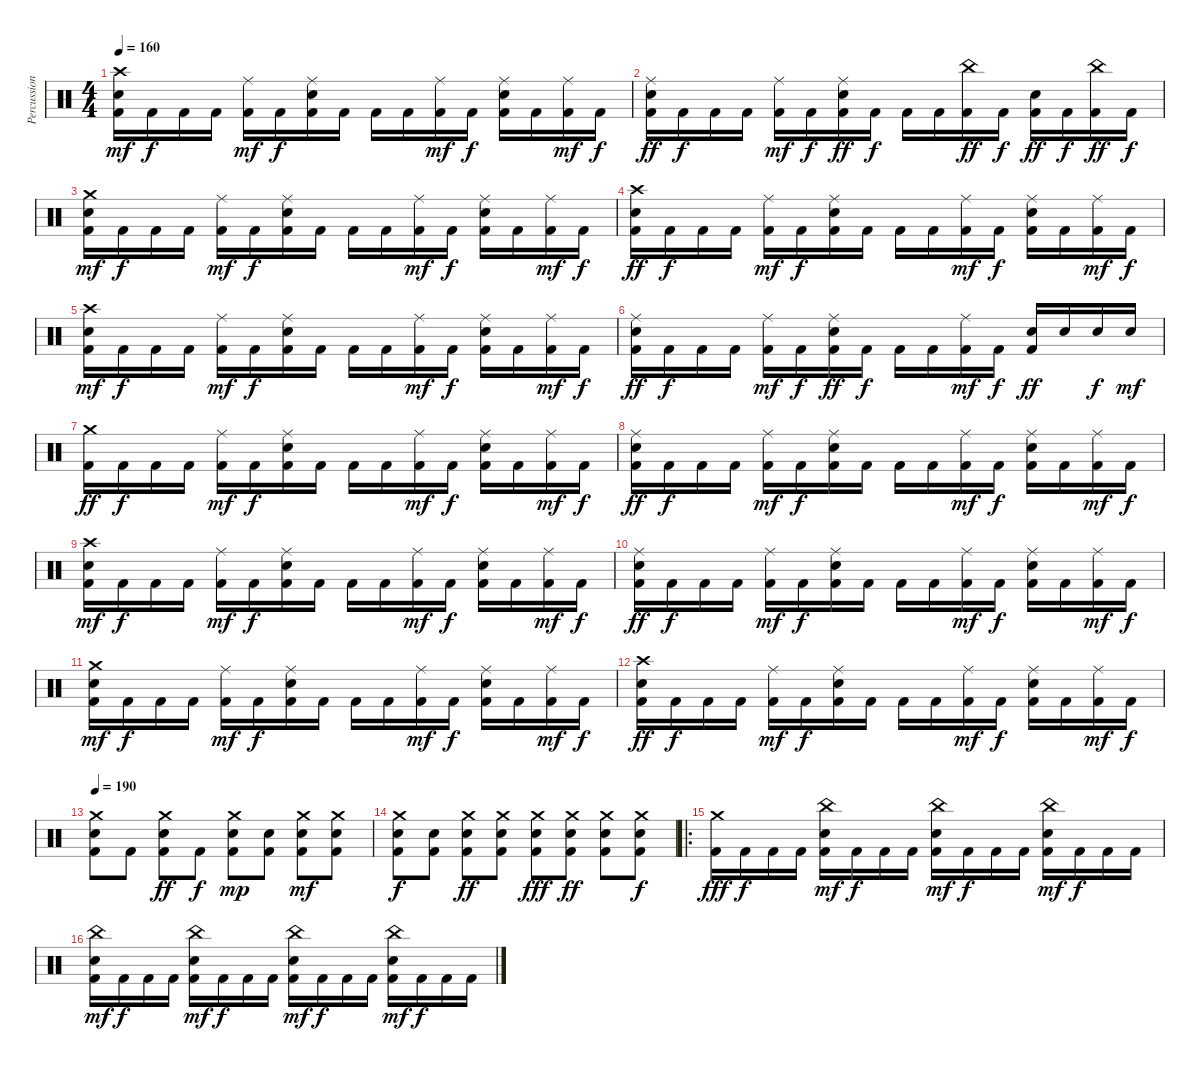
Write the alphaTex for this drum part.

\track ("Percussions" "Percussion") {instrument percussion}
\staff {score}
\articulation defaults
\ts (4 4)
\tempo 160
\clef neutral
\ks c
("Crash high (hit)" "Electric Snare (hit)" "Kick (hit) 2").16{dy mf} "Kick (hit) 2".16{dy f} "Kick (hit) 2".16 "Kick (hit) 2".16 ("Ride (middle)" "Kick (hit) 2").16{dy mf} "Kick (hit) 2".16{dy f} ("Ride (middle)" "Electric Snare (hit)" "Kick (hit) 2").16 "Kick (hit) 2".16 "Kick (hit) 2".16 "Kick (hit) 2".16 ("Ride (middle)" "Kick (hit) 2").16{dy mf} "Kick (hit) 2".16{dy f} ("Ride (middle)" "Electric Snare (hit)" "Kick (hit) 2").16 "Kick (hit) 2".16 ("Ride (middle)" "Kick (hit) 2").16{dy mf} "Kick (hit) 2".16{dy f} |
("Ride (middle)" "Electric Snare (hit)" "Kick (hit) 2").16{dy ff} "Kick (hit) 2".16{dy f} "Kick (hit) 2".16 "Kick (hit) 2".16 ("Ride (middle)" "Kick (hit) 2").16{dy mf} "Kick (hit) 2".16{dy f} ("Ride (middle)" "Electric Snare (hit)" "Kick (hit) 2").16{dy ff} "Kick (hit) 2".16{dy f} "Kick (hit) 2".16 "Kick (hit) 2".16 ("China (hit)" "Kick (hit) 2").16{dy ff} "Kick (hit) 2".16{dy f} ("Electric Snare (hit)" "Kick (hit) 2").16{dy ff} "Kick (hit) 2".16{dy f} ("China (hit)" "Kick (hit) 2").16{dy ff} "Kick (hit) 2".16{dy f} |
("Crash medium (hit)" "Electric Snare (hit)" "Kick (hit) 2").16{dy mf} "Kick (hit) 2".16{dy f} "Kick (hit) 2".16 "Kick (hit) 2".16 ("Ride (middle)" "Kick (hit) 2").16{dy mf} "Kick (hit) 2".16{dy f} ("Ride (middle)" "Electric Snare (hit)" "Kick (hit) 2").16 "Kick (hit) 2".16 "Kick (hit) 2".16 "Kick (hit) 2".16 ("Ride (middle)" "Kick (hit) 2").16{dy mf} "Kick (hit) 2".16{dy f} ("Ride (middle)" "Electric Snare (hit)" "Kick (hit) 2").16 "Kick (hit) 2".16 ("Ride (middle)" "Kick (hit) 2").16{dy mf} "Kick (hit) 2".16{dy f} |
("Crash high (hit)" "Electric Snare (hit)" "Kick (hit) 2").16{dy ff} "Kick (hit) 2".16{dy f} "Kick (hit) 2".16 "Kick (hit) 2".16 ("Ride (middle)" "Kick (hit) 2").16{dy mf} "Kick (hit) 2".16{dy f} ("Ride (middle)" "Electric Snare (hit)" "Kick (hit) 2").16 "Kick (hit) 2".16 "Kick (hit) 2".16 "Kick (hit) 2".16 ("Ride (middle)" "Kick (hit) 2").16{dy mf} "Kick (hit) 2".16{dy f} ("Ride (middle)" "Electric Snare (hit)" "Kick (hit) 2").16 "Kick (hit) 2".16 ("Ride (middle)" "Kick (hit) 2").16{dy mf} "Kick (hit) 2".16{dy f} |
("Crash high (hit)" "Electric Snare (hit)" "Kick (hit) 2").16{dy mf} "Kick (hit) 2".16{dy f} "Kick (hit) 2".16 "Kick (hit) 2".16 ("Ride (middle)" "Kick (hit) 2").16{dy mf} "Kick (hit) 2".16{dy f} ("Ride (middle)" "Electric Snare (hit)" "Kick (hit) 2").16 "Kick (hit) 2".16 "Kick (hit) 2".16 "Kick (hit) 2".16 ("Ride (middle)" "Kick (hit) 2").16{dy mf} "Kick (hit) 2".16{dy f} ("Ride (middle)" "Electric Snare (hit)" "Kick (hit) 2").16 "Kick (hit) 2".16 ("Ride (middle)" "Kick (hit) 2").16{dy mf} "Kick (hit) 2".16{dy f} |
("Ride (middle)" "Electric Snare (hit)" "Kick (hit) 2").16{dy ff} "Kick (hit) 2".16{dy f} "Kick (hit) 2".16 "Kick (hit) 2".16 ("Ride (middle)" "Kick (hit) 2").16{dy mf} "Kick (hit) 2".16{dy f} ("Ride (middle)" "Electric Snare (hit)" "Kick (hit) 2").16{dy ff} "Kick (hit) 2".16{dy f} "Kick (hit) 2".16 "Kick (hit) 2".16 ("Ride (middle)" "Kick (hit) 2").16{dy mf} "Kick (hit) 2".16{dy f} ("Electric Snare (hit)" "Kick (hit) 2").16{dy ff} "Electric Snare (hit)".16 "Electric Snare (hit)".16{dy f} "Electric Snare (hit)".16{dy mf} |
("Crash medium (hit)" "Kick (hit) 2").16{dy ff} "Kick (hit) 2".16{dy f} "Kick (hit) 2".16 "Kick (hit) 2".16 ("Ride (middle)" "Kick (hit) 2").16{dy mf} "Kick (hit) 2".16{dy f} ("Ride (middle)" "Electric Snare (hit)" "Kick (hit) 2").16 "Kick (hit) 2".16 "Kick (hit) 2".16 "Kick (hit) 2".16 ("Ride (middle)" "Kick (hit) 2").16{dy mf} "Kick (hit) 2".16{dy f} ("Ride (middle)" "Electric Snare (hit)" "Kick (hit) 2").16 "Kick (hit) 2".16 ("Ride (middle)" "Kick (hit) 2").16{dy mf} "Kick (hit) 2".16{dy f} |
("Ride (middle)" "Electric Snare (hit)" "Kick (hit) 2").16{dy ff} "Kick (hit) 2".16{dy f} "Kick (hit) 2".16 "Kick (hit) 2".16 ("Ride (middle)" "Kick (hit) 2").16{dy mf} "Kick (hit) 2".16{dy f} ("Ride (middle)" "Electric Snare (hit)" "Kick (hit) 2").16 "Kick (hit) 2".16 "Kick (hit) 2".16 "Kick (hit) 2".16 ("Ride (middle)" "Kick (hit) 2").16{dy mf} "Kick (hit) 2".16{dy f} ("Ride (middle)" "Electric Snare (hit)" "Kick (hit) 2").16 "Kick (hit) 2".16 ("Ride (middle)" "Kick (hit) 2").16{dy mf} "Kick (hit) 2".16{dy f} |
("Crash high (hit)" "Electric Snare (hit)" "Kick (hit) 2").16{dy mf} "Kick (hit) 2".16{dy f} "Kick (hit) 2".16 "Kick (hit) 2".16 ("Ride (middle)" "Kick (hit) 2").16{dy mf} "Kick (hit) 2".16{dy f} ("Ride (middle)" "Electric Snare (hit)" "Kick (hit) 2").16 "Kick (hit) 2".16 "Kick (hit) 2".16 "Kick (hit) 2".16 ("Ride (middle)" "Kick (hit) 2").16{dy mf} "Kick (hit) 2".16{dy f} ("Ride (middle)" "Electric Snare (hit)" "Kick (hit) 2").16 "Kick (hit) 2".16 ("Ride (middle)" "Kick (hit) 2").16{dy mf} "Kick (hit) 2".16{dy f} |
("Ride (middle)" "Electric Snare (hit)" "Kick (hit) 2").16{dy ff} "Kick (hit) 2".16{dy f} "Kick (hit) 2".16 "Kick (hit) 2".16 ("Ride (middle)" "Kick (hit) 2").16{dy mf} "Kick (hit) 2".16{dy f} ("Ride (middle)" "Electric Snare (hit)" "Kick (hit) 2").16 "Kick (hit) 2".16 "Kick (hit) 2".16 "Kick (hit) 2".16 ("Ride (middle)" "Kick (hit) 2").16{dy mf} "Kick (hit) 2".16{dy f} ("Ride (middle)" "Electric Snare (hit)" "Kick (hit) 2").16 "Kick (hit) 2".16 ("Ride (middle)" "Kick (hit) 2").16{dy mf} "Kick (hit) 2".16{dy f} |
("Crash medium (hit)" "Electric Snare (hit)" "Kick (hit) 2").16{dy mf} "Kick (hit) 2".16{dy f} "Kick (hit) 2".16 "Kick (hit) 2".16 ("Ride (middle)" "Kick (hit) 2").16{dy mf} "Kick (hit) 2".16{dy f} ("Ride (middle)" "Electric Snare (hit)" "Kick (hit) 2").16 "Kick (hit) 2".16 "Kick (hit) 2".16 "Kick (hit) 2".16 ("Ride (middle)" "Kick (hit) 2").16{dy mf} "Kick (hit) 2".16{dy f} ("Ride (middle)" "Electric Snare (hit)" "Kick (hit) 2").16 "Kick (hit) 2".16 ("Ride (middle)" "Kick (hit) 2").16{dy mf} "Kick (hit) 2".16{dy f} |
("Crash high (hit)" "Electric Snare (hit)" "Kick (hit) 2").16{dy ff} "Kick (hit) 2".16{dy f} "Kick (hit) 2".16 "Kick (hit) 2".16 ("Ride (middle)" "Kick (hit) 2").16{dy mf} "Kick (hit) 2".16{dy f} ("Ride (middle)" "Electric Snare (hit)" "Kick (hit) 2").16 "Kick (hit) 2".16 "Kick (hit) 2".16 "Kick (hit) 2".16 ("Ride (middle)" "Kick (hit) 2").16{dy mf} "Kick (hit) 2".16{dy f} ("Ride (middle)" "Electric Snare (hit)" "Kick (hit) 2").16 "Kick (hit) 2".16 ("Ride (middle)" "Kick (hit) 2").16{dy mf} "Kick (hit) 2".16{dy f} |
\tempo 190
("Crash medium (hit)" "Electric Snare (hit)" "Kick (hit) 2").8 "Kick (hit) 2".8 ("Crash medium (hit)" "Electric Snare (hit)" "Kick (hit) 2").8{dy ff} "Kick (hit) 2".8{dy f} ("Crash medium (hit)" "Electric Snare (hit)" "Kick (hit) 2").8{dy mp} ("Electric Snare (hit)" "Kick (hit) 2").8 ("Crash medium (hit)" "Electric Snare (hit)" "Kick (hit) 2").8{dy mf} ("Crash medium (hit)" "Electric Snare (hit)" "Kick (hit) 2").8 |
("Crash medium (hit)" "Electric Snare (hit)" "Kick (hit) 2").8{dy f} ("Electric Snare (hit)" "Kick (hit) 2").8 ("Crash medium (hit)" "Electric Snare (hit)" "Kick (hit) 2").8{dy ff} ("Crash medium (hit)" "Electric Snare (hit)" "Kick (hit) 2").8 ("Crash medium (hit)" "Electric Snare (hit)" "Kick (hit) 2").8{dy fff} ("Crash medium (hit)" "Electric Snare (hit)" "Kick (hit) 2").8{dy ff} ("Crash medium (hit)" "Electric Snare (hit)" "Kick (hit) 2").8 ("Crash medium (hit)" "Electric Snare (hit)" "Kick (hit) 2").8{dy f} |
\ro
("Crash medium (hit)" "Kick (hit) 2").16{dy fff} "Kick (hit) 2".16{dy f} "Kick (hit) 2".16 "Kick (hit) 2".16 ("China (hit)" "Electric Snare (hit)" "Kick (hit) 2").16{dy mf} "Kick (hit) 2".16{dy f} "Kick (hit) 2".16 "Kick (hit) 2".16 ("China (hit)" "Electric Snare (hit)" "Kick (hit) 2").16{dy mf} "Kick (hit) 2".16{dy f} "Kick (hit) 2".16 "Kick (hit) 2".16 ("China (hit)" "Electric Snare (hit)" "Kick (hit) 2").16{dy mf} "Kick (hit) 2".16{dy f} "Kick (hit) 2".16 "Kick (hit) 2".16 |
("China (hit)" "Electric Snare (hit)" "Kick (hit) 2").16{dy mf} "Kick (hit) 2".16{dy f} "Kick (hit) 2".16 "Kick (hit) 2".16 ("China (hit)" "Electric Snare (hit)" "Kick (hit) 2").16{dy mf} "Kick (hit) 2".16{dy f} "Kick (hit) 2".16 "Kick (hit) 2".16 ("China (hit)" "Electric Snare (hit)" "Kick (hit) 2").16{dy mf} "Kick (hit) 2".16{dy f} "Kick (hit) 2".16 "Kick (hit) 2".16 ("China (hit)" "Electric Snare (hit)" "Kick (hit) 2").16{dy mf} "Kick (hit) 2".16{dy f} "Kick (hit) 2".16 "Kick (hit) 2".16
